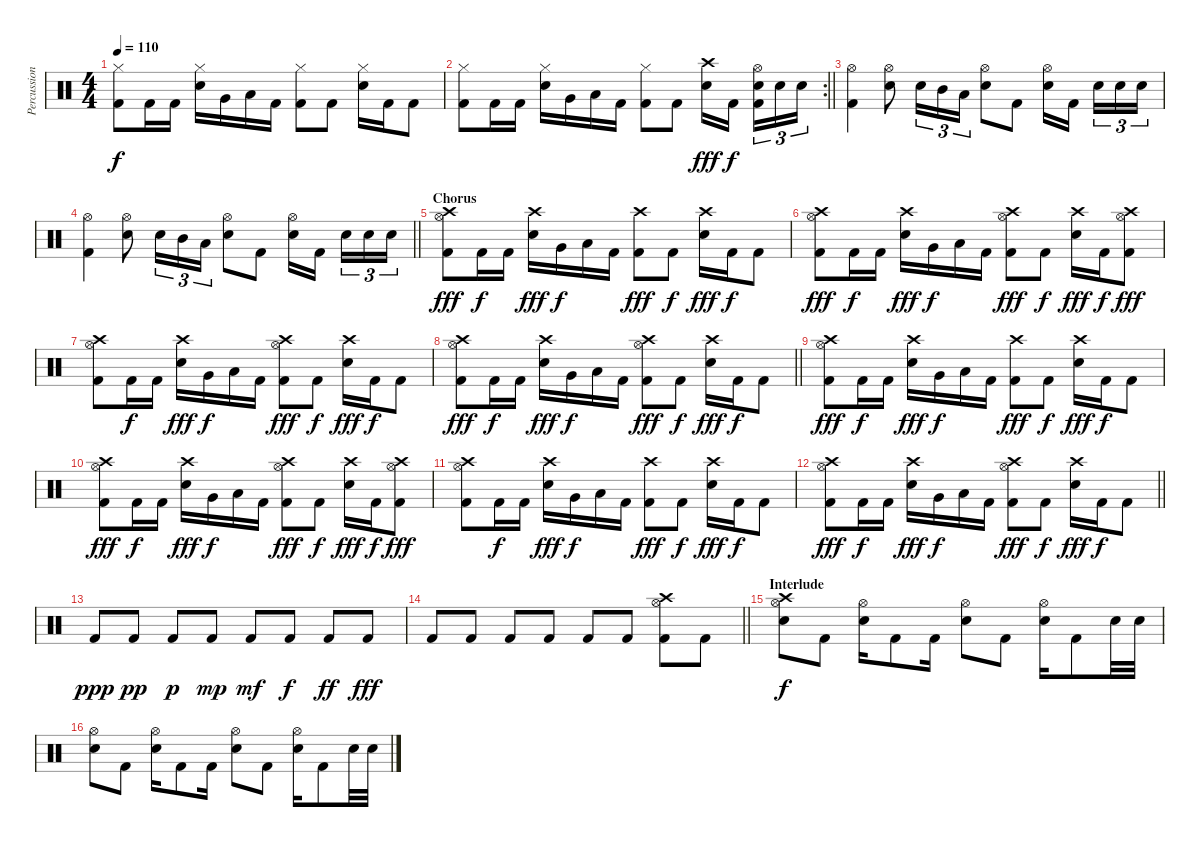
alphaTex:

\track ("Percussion" "Percussion") {instrument percussion}
\staff {score}
\articulation defaults
\ts (4 4)
\tempo 110
\clef neutral
\ks c
("Hi-Hat (closed)" "Kick (hit) 2").8{dy f} "Kick (hit) 2".16 "Kick (hit) 2".16 ("Hi-Hat (closed)" "Snare (hit) 2").16 "Very Low Tom (hit)".16 "Low Tom (hit)".16 "Kick (hit) 2".16 ("Hi-Hat (closed)" "Kick (hit) 2").8 "Kick (hit) 2".8 ("Hi-Hat (closed)" "Snare (hit) 2").16 "Kick (hit) 2".16 "Kick (hit) 2".8 |
\rc 2
\barLineRight lightlight
("Hi-Hat (closed)" "Kick (hit) 2").8 "Kick (hit) 2".16 "Kick (hit) 2".16 ("Hi-Hat (closed)" "Snare (hit) 2").16 "Very Low Tom (hit)".16 "Low Tom (hit)".16 "Kick (hit) 2".16 ("Hi-Hat (closed)" "Kick (hit) 2").8 "Kick (hit) 2".8 ("Crash high (hit)" "Snare (hit) 2").16{dy fff} "Kick (hit) 2".16{dy f beam splitsecondary} ("Hi-Hat (open)" "Snare (hit) 2" "Kick (hit) 2").16{tu (3 2)} "Snare (hit) 2".16{tu (3 2)} "Snare (hit) 2".16{tu (3 2)} |
("Hi-Hat (open)" "Kick (hit) 2").4 ("Hi-Hat (open)" "Snare (hit) 2").8 "Snare (hit) 2".16{tu (3 2)} "Mid Tom (hit)".16{tu (3 2)} "Low Tom (hit)".16{tu (3 2)} ("Hi-Hat (open)" "Snare (hit) 2").8 "Kick (hit) 2".8 ("Hi-Hat (open)" "Snare (hit) 2").16 "Kick (hit) 2".16{beam splitsecondary} "Snare (hit) 2".16{tu (3 2)} "Snare (hit) 2".16{tu (3 2)} "Snare (hit) 2".16{tu (3 2)} |
\barLineRight lightlight
("Hi-Hat (open)" "Kick (hit) 2").4 ("Hi-Hat (open)" "Snare (hit) 2").8 "Snare (hit) 2".16{tu (3 2)} "Mid Tom (hit)".16{tu (3 2)} "Low Tom (hit)".16{tu (3 2)} ("Hi-Hat (open)" "Snare (hit) 2").8 "Kick (hit) 2".8 ("Hi-Hat (open)" "Snare (hit) 2").16 "Kick (hit) 2".16{beam splitsecondary} "Snare (hit) 2".16{tu (3 2)} "Snare (hit) 2".16{tu (3 2)} "Snare (hit) 2".16{tu (3 2)} |
\section ("" "Chorus")
("Crash high (hit)" "Hi-Hat (open)" "Kick (hit) 2").8{dy fff} "Kick (hit) 2".16{dy f} "Kick (hit) 2".16 ("Crash high (hit)" "Snare (hit) 2").16{dy fff} "Very Low Tom (hit)".16{dy f} "Low Tom (hit)".16 "Kick (hit) 2".16 ("Crash high (hit)" "Kick (hit) 2").8{dy fff} "Kick (hit) 2".8{dy f} ("Crash high (hit)" "Snare (hit) 2").16{dy fff} "Kick (hit) 2".16{dy f} "Kick (hit) 2".8 |
("Crash high (hit)" "Hi-Hat (open)" "Kick (hit) 2").8{dy fff} "Kick (hit) 2".16{dy f} "Kick (hit) 2".16 ("Crash high (hit)" "Snare (hit) 2").16{dy fff} "Very Low Tom (hit)".16{dy f} "Low Tom (hit)".16 "Kick (hit) 2".16 ("Crash high (hit)" "Hi-Hat (open)" "Kick (hit) 2").8{dy fff} "Kick (hit) 2".8{dy f} ("Crash high (hit)" "Snare (hit) 2").16{dy fff} "Kick (hit) 2".16{dy f} ("Crash high (hit)" "Hi-Hat (open)" "Kick (hit) 2").8{dy fff} |
("Crash high (hit)" "Hi-Hat (open)" "Kick (hit) 2").8 "Kick (hit) 2".16{dy f} "Kick (hit) 2".16 ("Crash high (hit)" "Snare (hit) 2").16{dy fff} "Very Low Tom (hit)".16{dy f} "Low Tom (hit)".16 "Kick (hit) 2".16 ("Crash high (hit)" "Hi-Hat (open)" "Kick (hit) 2").8{dy fff} "Kick (hit) 2".8{dy f} ("Crash high (hit)" "Snare (hit) 2").16{dy fff} "Kick (hit) 2".16{dy f} "Kick (hit) 2".8 |
\barLineRight lightlight
("Crash high (hit)" "Hi-Hat (open)" "Kick (hit) 2").8{dy fff} "Kick (hit) 2".16{dy f} "Kick (hit) 2".16 ("Crash high (hit)" "Snare (hit) 2").16{dy fff} "Very Low Tom (hit)".16{dy f} "Low Tom (hit)".16 "Kick (hit) 2".16 ("Crash high (hit)" "Hi-Hat (open)" "Kick (hit) 2").8{dy fff} "Kick (hit) 2".8{dy f} ("Crash high (hit)" "Snare (hit) 2").16{dy fff} "Kick (hit) 2".16{dy f} "Kick (hit) 2".8 |
("Crash high (hit)" "Hi-Hat (open)" "Kick (hit) 2").8{dy fff} "Kick (hit) 2".16{dy f} "Kick (hit) 2".16 ("Crash high (hit)" "Snare (hit) 2").16{dy fff} "Very Low Tom (hit)".16{dy f} "Low Tom (hit)".16 "Kick (hit) 2".16 ("Crash high (hit)" "Kick (hit) 2").8{dy fff} "Kick (hit) 2".8{dy f} ("Crash high (hit)" "Snare (hit) 2").16{dy fff} "Kick (hit) 2".16{dy f} "Kick (hit) 2".8 |
("Crash high (hit)" "Hi-Hat (open)" "Kick (hit) 2").8{dy fff} "Kick (hit) 2".16{dy f} "Kick (hit) 2".16 ("Crash high (hit)" "Snare (hit) 2").16{dy fff} "Very Low Tom (hit)".16{dy f} "Low Tom (hit)".16 "Kick (hit) 2".16 ("Crash high (hit)" "Hi-Hat (open)" "Kick (hit) 2").8{dy fff} "Kick (hit) 2".8{dy f} ("Crash high (hit)" "Snare (hit) 2").16{dy fff} "Kick (hit) 2".16{dy f} ("Crash high (hit)" "Hi-Hat (open)" "Kick (hit) 2").8{dy fff} |
("Crash high (hit)" "Hi-Hat (open)" "Kick (hit) 2").8 "Kick (hit) 2".16{dy f} "Kick (hit) 2".16 ("Crash high (hit)" "Snare (hit) 2").16{dy fff} "Very Low Tom (hit)".16{dy f} "Low Tom (hit)".16 "Kick (hit) 2".16 ("Crash high (hit)" "Kick (hit) 2").8{dy fff} "Kick (hit) 2".8{dy f} ("Crash high (hit)" "Snare (hit) 2").16{dy fff} "Kick (hit) 2".16{dy f} "Kick (hit) 2".8 |
\barLineRight lightlight
("Crash high (hit)" "Hi-Hat (open)" "Kick (hit) 2").8{dy fff} "Kick (hit) 2".16{dy f} "Kick (hit) 2".16 ("Crash high (hit)" "Snare (hit) 2").16{dy fff} "Very Low Tom (hit)".16{dy f} "Low Tom (hit)".16 "Kick (hit) 2".16 ("Crash high (hit)" "Hi-Hat (open)" "Kick (hit) 2").8{dy fff} "Kick (hit) 2".8{dy f} ("Crash high (hit)" "Snare (hit) 2").16{dy fff} "Kick (hit) 2".16{dy f} "Kick (hit) 2".8 |
"Kick (hit) 2".8{dy ppp} "Kick (hit) 2".8{dy pp} "Kick (hit) 2".8{dy p} "Kick (hit) 2".8{dy mp} "Kick (hit) 2".8{dy mf} "Kick (hit) 2".8{dy f} "Kick (hit) 2".8{dy ff} "Kick (hit) 2".8{dy fff} |
\barLineRight lightlight "Kick (hit) 2".8 "Kick (hit) 2".8 "Kick (hit) 2".8 "Kick (hit) 2".8 "Kick (hit) 2".8 "Kick (hit) 2".8
("Crash high (hit)" "Hi-Hat (open)" "Kick (hit) 2").8 "Kick (hit) 2".8 |
\section ("" "Interlude")
("Crash high (hit)" "Hi-Hat (open)" "Snare (hit) 2").8{dy f} "Kick (hit) 2".8 ("Hi-Hat (open)" "Snare (hit) 2").16 "Kick (hit) 2".8 "Kick (hit) 2".16 ("Hi-Hat (open)" "Snare (hit) 2").8 "Kick (hit) 2".8 ("Hi-Hat (open)" "Snare (hit) 2").16 "Kick (hit) 2".8 "Snare (hit) 2".32 "Snare (hit) 2".32 |
("Hi-Hat (open)" "Snare (hit) 2").8 "Kick (hit) 2".8 ("Hi-Hat (open)" "Snare (hit) 2").16 "Kick (hit) 2".8 "Kick (hit) 2".16 ("Hi-Hat (open)" "Snare (hit) 2").8 "Kick (hit) 2".8 ("Hi-Hat (open)" "Snare (hit) 2").16 "Kick (hit) 2".8 "Snare (hit) 2".32 "Snare (hit) 2".32
